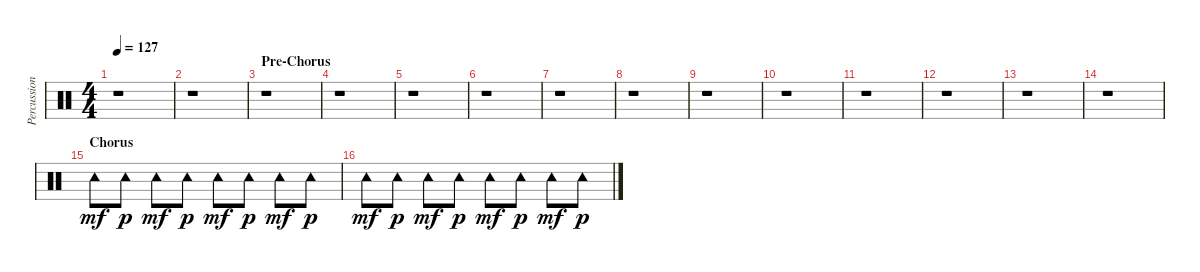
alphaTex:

\track ("Percussion Overdubs" "Percussion") {instrument percussion}
\staff {score}
\articulation defaults
\ts (4 4)
\tempo 127
\clef neutral
\ks c
r.1{dy p} |
r.1 |
\section ("" "Pre-Chorus")
r.1 |
r.1 |
r.1 |
r.1 |
r.1 |
r.1 |
r.1 |
r.1 |
r.1 |
r.1 |
r.1 |
r.1 |
\section ("" "Chorus")
"Tambourine (hit)".8{dy mf} "Tambourine (hit)".8{dy p} "Tambourine (hit)".8{dy mf} "Tambourine (hit)".8{dy p} "Tambourine (hit)".8{dy mf} "Tambourine (hit)".8{dy p} "Tambourine (hit)".8{dy mf} "Tambourine (hit)".8{dy p} |
"Tambourine (hit)".8{dy mf} "Tambourine (hit)".8{dy p} "Tambourine (hit)".8{dy mf} "Tambourine (hit)".8{dy p} "Tambourine (hit)".8{dy mf} "Tambourine (hit)".8{dy p} "Tambourine (hit)".8{dy mf} "Tambourine (hit)".8{dy p}
